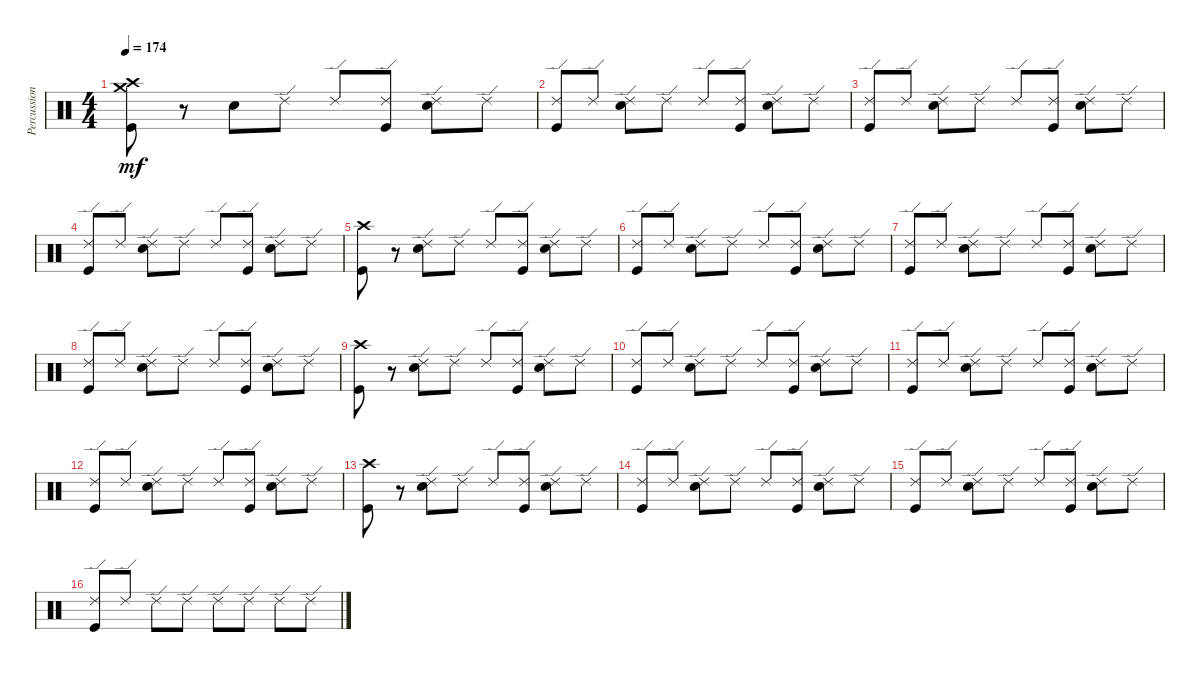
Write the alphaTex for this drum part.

\track ("Percussion" "Percussion") {instrument percussion}
\staff {score}
\articulation defaults
\ts (4 4)
\tempo 174
\clef neutral
\ks c
("Crash high (hit)" "Crash medium (hit)" "Kick (hit)").8{dy mf volume 9} r.8 "Electric Snare (hit)".8 "Ride (edge) 2".8 "Ride (edge) 2".8 ("Ride (edge) 2" "Kick (hit)").8 ("Ride (edge) 2" "Electric Snare (hit)").8 "Ride (edge) 2".8 |
("Ride (edge) 2" "Kick (hit)").8{volume 10} "Ride (edge) 2".8 ("Ride (edge) 2" "Electric Snare (hit)").8 "Ride (edge) 2".8 "Ride (edge) 2".8 ("Ride (edge) 2" "Kick (hit)").8 ("Ride (edge) 2" "Electric Snare (hit)").8 "Ride (edge) 2".8 |
("Ride (edge) 2" "Kick (hit)").8{volume 10} "Ride (edge) 2".8 ("Ride (edge) 2" "Electric Snare (hit)").8 "Ride (edge) 2".8 "Ride (edge) 2".8 ("Ride (edge) 2" "Kick (hit)").8 ("Ride (edge) 2" "Electric Snare (hit)").8 "Ride (edge) 2".8 |
("Ride (edge) 2" "Kick (hit)").8{volume 11} "Ride (edge) 2".8 ("Ride (edge) 2" "Electric Snare (hit)").8 "Ride (edge) 2".8 "Ride (edge) 2".8 ("Ride (edge) 2" "Kick (hit)").8 ("Ride (edge) 2" "Electric Snare (hit)").8 "Ride (edge) 2".8 |
("Crash high (hit)" "Kick (hit)").8{volume 12} r.8 ("Ride (edge) 2" "Electric Snare (hit)").8 "Ride (edge) 2".8 "Ride (edge) 2".8 ("Ride (edge) 2" "Kick (hit)").8 ("Ride (edge) 2" "Electric Snare (hit)").8 "Ride (edge) 2".8 |
("Ride (edge) 2" "Kick (hit)").8{volume 12} "Ride (edge) 2".8 ("Ride (edge) 2" "Electric Snare (hit)").8 "Ride (edge) 2".8 "Ride (edge) 2".8 ("Ride (edge) 2" "Kick (hit)").8 ("Ride (edge) 2" "Electric Snare (hit)").8 "Ride (edge) 2".8 |
("Ride (edge) 2" "Kick (hit)").8{volume 13} "Ride (edge) 2".8 ("Ride (edge) 2" "Electric Snare (hit)").8 "Ride (edge) 2".8 "Ride (edge) 2".8 ("Ride (edge) 2" "Kick (hit)").8 ("Ride (edge) 2" "Electric Snare (hit)").8 "Ride (edge) 2".8 |
("Ride (edge) 2" "Kick (hit)").8{volume 14} "Ride (edge) 2".8 ("Ride (edge) 2" "Electric Snare (hit)").8 "Ride (edge) 2".8 "Ride (edge) 2".8 ("Ride (edge) 2" "Kick (hit)").8 ("Ride (edge) 2" "Electric Snare (hit)").8 "Ride (edge) 2".8 |
("Crash high (hit)" "Kick (hit)").8 r.8 ("Ride (edge) 2" "Electric Snare (hit)").8 "Ride (edge) 2".8 "Ride (edge) 2".8 ("Ride (edge) 2" "Kick (hit)").8 ("Ride (edge) 2" "Electric Snare (hit)").8 "Ride (edge) 2".8 |
("Ride (edge) 2" "Kick (hit)").8 "Ride (edge) 2".8 ("Ride (edge) 2" "Electric Snare (hit)").8 "Ride (edge) 2".8 "Ride (edge) 2".8 ("Ride (edge) 2" "Kick (hit)").8 ("Ride (edge) 2" "Electric Snare (hit)").8 "Ride (edge) 2".8 |
("Ride (edge) 2" "Kick (hit)").8 "Ride (edge) 2".8 ("Ride (edge) 2" "Electric Snare (hit)").8 "Ride (edge) 2".8 "Ride (edge) 2".8 ("Ride (edge) 2" "Kick (hit)").8 ("Ride (edge) 2" "Electric Snare (hit)").8 "Ride (edge) 2".8 |
("Ride (edge) 2" "Kick (hit)").8 "Ride (edge) 2".8 ("Ride (edge) 2" "Electric Snare (hit)").8 "Ride (edge) 2".8 "Ride (edge) 2".8 ("Ride (edge) 2" "Kick (hit)").8 ("Ride (edge) 2" "Electric Snare (hit)").8 "Ride (edge) 2".8 |
("Crash high (hit)" "Kick (hit)").8 r.8 ("Ride (edge) 2" "Electric Snare (hit)").8 "Ride (edge) 2".8 "Ride (edge) 2".8 ("Ride (edge) 2" "Kick (hit)").8 ("Ride (edge) 2" "Electric Snare (hit)").8 "Ride (edge) 2".8 |
("Ride (edge) 2" "Kick (hit)").8 "Ride (edge) 2".8 ("Ride (edge) 2" "Electric Snare (hit)").8 "Ride (edge) 2".8 "Ride (edge) 2".8 ("Ride (edge) 2" "Kick (hit)").8 ("Ride (edge) 2" "Electric Snare (hit)").8 "Ride (edge) 2".8 |
("Ride (edge) 2" "Kick (hit)").8 "Ride (edge) 2".8 ("Ride (edge) 2" "Electric Snare (hit)").8 "Ride (edge) 2".8 "Ride (edge) 2".8 ("Ride (edge) 2" "Kick (hit)").8 ("Ride (edge) 2" "Electric Snare (hit)").8 "Ride (edge) 2".8 |
("Ride (edge) 2" "Kick (hit)").8 "Ride (edge) 2".8 "Ride (edge) 2".8 "Ride (edge) 2".8 "Ride (edge) 2".8 "Ride (edge) 2".8 "Ride (edge) 2".8 "Ride (edge) 2".8
